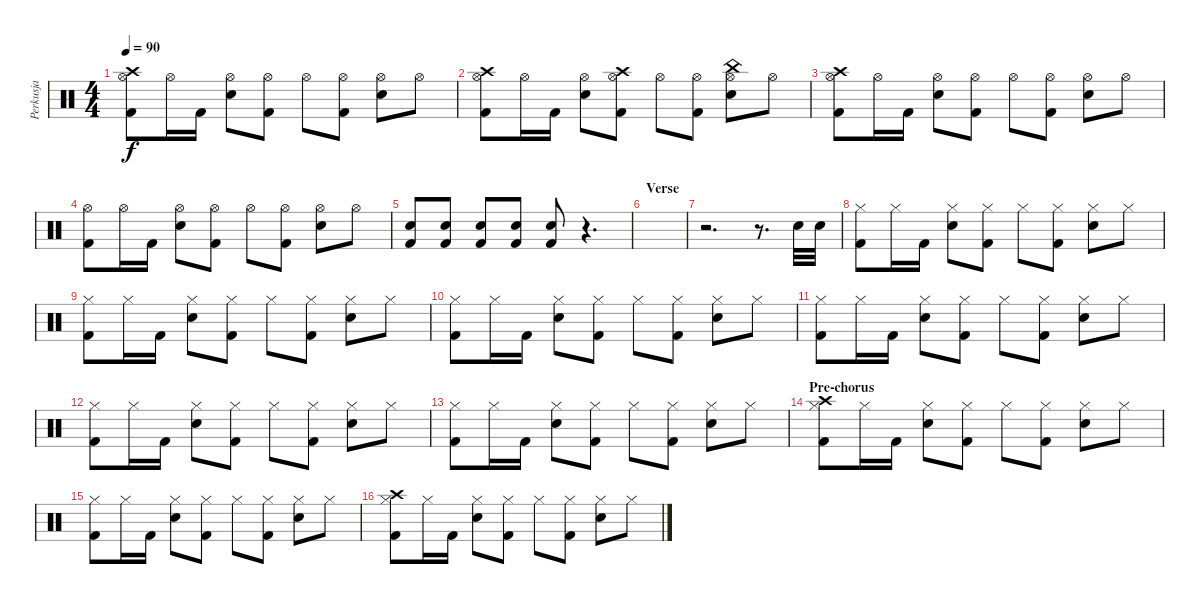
\track ("Perkusja" "Perkusja") {instrument percussion}
\staff {score}
\articulation defaults
\ts (4 4)
\tempo 90
\clef neutral
\ks c
("Hi-Hat (open)" "Kick (hit) 2" "Crash high (hit)").8{dy f} "Hi-Hat (open)".16 "Kick (hit) 2".16 ("Hi-Hat (open)" "Snare (hit) 2").8 ("Hi-Hat (open)" "Kick (hit) 2").8 "Hi-Hat (open)".8 ("Hi-Hat (open)" "Kick (hit) 2").8 ("Hi-Hat (open)" "Snare (hit) 2").8 "Hi-Hat (open)".8 |
("Hi-Hat (open)" "Kick (hit) 2" "Crash high (hit)").8 "Hi-Hat (open)".16 "Kick (hit) 2".16 ("Hi-Hat (open)" "Snare (hit) 2").8 ("Hi-Hat (open)" "Kick (hit) 2" "Crash high (hit)").8 "Hi-Hat (open)".8 ("Hi-Hat (open)" "Kick (hit) 2").8 ("Hi-Hat (open)" "Snare (hit) 2" "China (hit)").8 "Hi-Hat (open)".8 |
("Hi-Hat (open)" "Kick (hit) 2" "Crash high (hit)").8 "Hi-Hat (open)".16 "Kick (hit) 2".16 ("Hi-Hat (open)" "Snare (hit) 2").8 ("Hi-Hat (open)" "Kick (hit) 2").8 "Hi-Hat (open)".8 ("Hi-Hat (open)" "Kick (hit) 2").8 ("Hi-Hat (open)" "Snare (hit) 2").8 "Hi-Hat (open)".8 |
("Hi-Hat (open)" "Kick (hit) 2").8 "Hi-Hat (open)".16 "Kick (hit) 2".16 ("Hi-Hat (open)" "Snare (hit) 2").8 ("Hi-Hat (open)" "Kick (hit) 2").8 "Hi-Hat (open)".8 ("Hi-Hat (open)" "Kick (hit) 2").8 ("Hi-Hat (open)" "Snare (hit) 2").8 "Hi-Hat (open)".8 |
("Snare (hit) 2" "Kick (hit) 2").8 ("Snare (hit) 2" "Kick (hit) 2").8 ("Snare (hit) 2" "Kick (hit) 2").8 ("Snare (hit) 2" "Kick (hit) 2").8 ("Snare (hit) 2" "Kick (hit) 2").8 r.4{d} |
\section ("" "Verse")
|
r.2{d} r.8{d} "Snare (hit) 2".32 "Snare (hit) 2".32 |
("Hi-Hat (closed)" "Kick (hit) 2").8 "Hi-Hat (closed)".16 "Kick (hit) 2".16 ("Hi-Hat (closed)" "Snare (hit) 2").8 ("Hi-Hat (closed)" "Kick (hit) 2").8 "Hi-Hat (closed)".8 ("Hi-Hat (closed)" "Kick (hit) 2").8 ("Hi-Hat (closed)" "Snare (hit) 2").8 "Hi-Hat (closed)".8 |
("Hi-Hat (closed)" "Kick (hit) 2").8 "Hi-Hat (closed)".16 "Kick (hit) 2".16 ("Hi-Hat (closed)" "Snare (hit) 2").8 ("Hi-Hat (closed)" "Kick (hit) 2").8 "Hi-Hat (closed)".8 ("Hi-Hat (closed)" "Kick (hit) 2").8 ("Hi-Hat (closed)" "Snare (hit) 2").8 "Hi-Hat (closed)".8 |
("Hi-Hat (closed)" "Kick (hit) 2").8 "Hi-Hat (closed)".16 "Kick (hit) 2".16 ("Hi-Hat (closed)" "Snare (hit) 2").8 ("Hi-Hat (closed)" "Kick (hit) 2").8 "Hi-Hat (closed)".8 ("Hi-Hat (closed)" "Kick (hit) 2").8 ("Hi-Hat (closed)" "Snare (hit) 2").8 "Hi-Hat (closed)".8 |
("Hi-Hat (closed)" "Kick (hit) 2").8 "Hi-Hat (closed)".16 "Kick (hit) 2".16 ("Hi-Hat (closed)" "Snare (hit) 2").8 ("Hi-Hat (closed)" "Kick (hit) 2").8 "Hi-Hat (closed)".8 ("Hi-Hat (closed)" "Kick (hit) 2").8 ("Hi-Hat (closed)" "Snare (hit) 2").8 "Hi-Hat (closed)".8 |
("Hi-Hat (closed)" "Kick (hit) 2").8 "Hi-Hat (closed)".16 "Kick (hit) 2".16 ("Hi-Hat (closed)" "Snare (hit) 2").8 ("Hi-Hat (closed)" "Kick (hit) 2").8 "Hi-Hat (closed)".8 ("Hi-Hat (closed)" "Kick (hit) 2").8 ("Hi-Hat (closed)" "Snare (hit) 2").8 "Hi-Hat (closed)".8 |
("Hi-Hat (closed)" "Kick (hit) 2").8 "Hi-Hat (closed)".16 "Kick (hit) 2".16 ("Hi-Hat (closed)" "Snare (hit) 2").8 ("Hi-Hat (closed)" "Kick (hit) 2").8 "Hi-Hat (closed)".8 ("Hi-Hat (closed)" "Kick (hit) 2").8 ("Hi-Hat (closed)" "Snare (hit) 2").8 "Hi-Hat (closed)".8 |
\section ("" "Pre-chorus")
("Hi-Hat (closed)" "Kick (hit) 2" "Crash high (hit)").8 "Hi-Hat (closed)".16 "Kick (hit) 2".16 ("Hi-Hat (closed)" "Snare (hit) 2").8 ("Hi-Hat (closed)" "Kick (hit) 2").8 "Hi-Hat (closed)".8 ("Hi-Hat (closed)" "Kick (hit) 2").8 ("Hi-Hat (closed)" "Snare (hit) 2").8 "Hi-Hat (closed)".8 |
("Hi-Hat (closed)" "Kick (hit) 2").8 "Hi-Hat (closed)".16 "Kick (hit) 2".16 ("Hi-Hat (closed)" "Snare (hit) 2").8 ("Hi-Hat (closed)" "Kick (hit) 2").8 "Hi-Hat (closed)".8 ("Hi-Hat (closed)" "Kick (hit) 2").8 ("Hi-Hat (closed)" "Snare (hit) 2").8 "Hi-Hat (closed)".8 |
("Hi-Hat (closed)" "Kick (hit) 2" "Crash high (hit)").8 "Hi-Hat (closed)".16 "Kick (hit) 2".16 ("Hi-Hat (closed)" "Snare (hit) 2").8 ("Hi-Hat (closed)" "Kick (hit) 2").8 "Hi-Hat (closed)".8 ("Hi-Hat (closed)" "Kick (hit) 2").8 ("Hi-Hat (closed)" "Snare (hit) 2").8 "Hi-Hat (closed)".8
